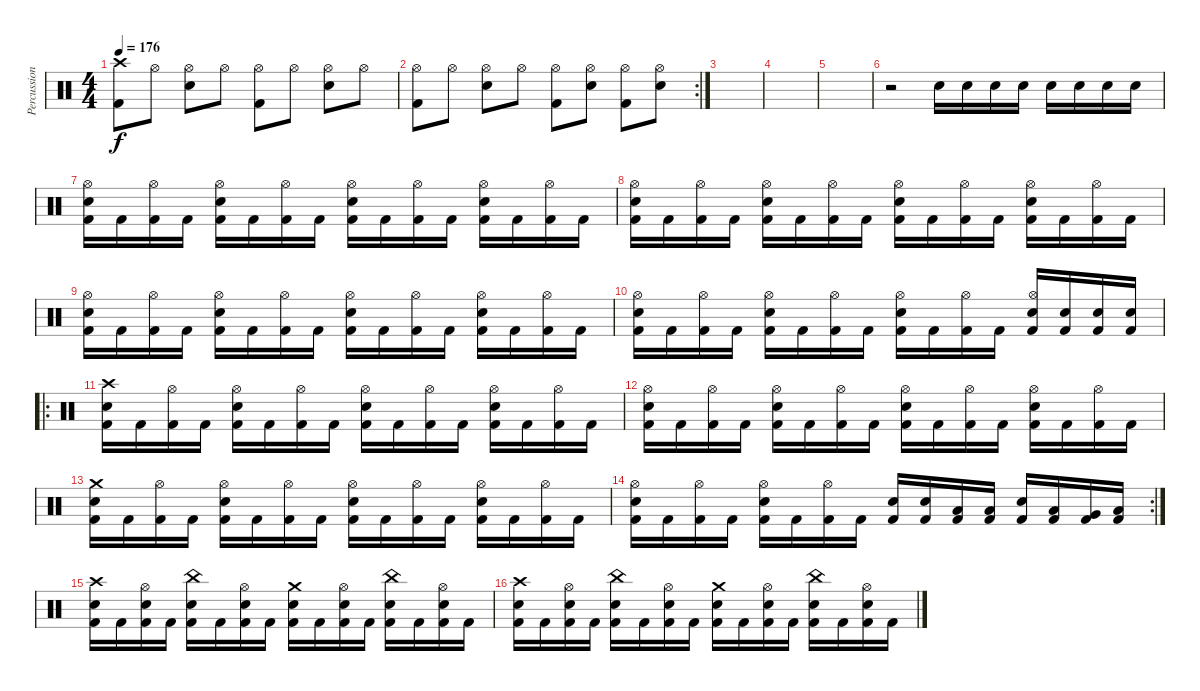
\track ("Percussion" "Percussion") {instrument percussion}
\staff {score}
\articulation defaults
\ts (4 4)
\tempo 176
\clef neutral
\ks c
("Crash high (hit)" "Kick (hit) 2").8{dy f} "Hi-Hat (open)".8 ("Hi-Hat (open)" "Electric Snare (hit)").8 "Hi-Hat (open)".8 ("Hi-Hat (open)" "Kick (hit) 2").8 "Hi-Hat (open)".8 ("Hi-Hat (open)" "Electric Snare (hit)").8 "Hi-Hat (open)".8 |
\rc 2
("Hi-Hat (open)" "Kick (hit) 2").8 "Hi-Hat (open)".8 ("Hi-Hat (open)" "Electric Snare (hit)").8 "Hi-Hat (open)".8 ("Hi-Hat (open)" "Kick (hit) 2").8 ("Hi-Hat (open)" "Electric Snare (hit)").8 ("Hi-Hat (open)" "Kick (hit) 2").8 ("Hi-Hat (open)" "Electric Snare (hit)").8 |
|
|
|
r.2 "Electric Snare (hit)".16 "Electric Snare (hit)".16 "Electric Snare (hit)".16 "Electric Snare (hit)".16 "Electric Snare (hit)".16 "Electric Snare (hit)".16 "Electric Snare (hit)".16 "Electric Snare (hit)".16 |
("Hi-Hat (open)" "Electric Snare (hit)" "Kick (hit) 2").16 "Kick (hit) 2".16 ("Hi-Hat (open)" "Kick (hit) 2").16 "Kick (hit) 2".16 ("Hi-Hat (open)" "Electric Snare (hit)" "Kick (hit) 2").16 "Kick (hit) 2".16 ("Hi-Hat (open)" "Kick (hit) 2").16 "Kick (hit) 2".16 ("Hi-Hat (open)" "Electric Snare (hit)" "Kick (hit) 2").16 "Kick (hit) 2".16 ("Hi-Hat (open)" "Kick (hit) 2").16 "Kick (hit) 2".16 ("Hi-Hat (open)" "Electric Snare (hit)" "Kick (hit) 2").16 "Kick (hit) 2".16 ("Hi-Hat (open)" "Kick (hit) 2").16 "Kick (hit) 2".16 |
("Hi-Hat (open)" "Electric Snare (hit)" "Kick (hit) 2").16 "Kick (hit) 2".16 ("Hi-Hat (open)" "Kick (hit) 2").16 "Kick (hit) 2".16 ("Hi-Hat (open)" "Electric Snare (hit)" "Kick (hit) 2").16 "Kick (hit) 2".16 ("Hi-Hat (open)" "Kick (hit) 2").16 "Kick (hit) 2".16 ("Hi-Hat (open)" "Electric Snare (hit)" "Kick (hit) 2").16 "Kick (hit) 2".16 ("Hi-Hat (open)" "Kick (hit) 2").16 "Kick (hit) 2".16 ("Hi-Hat (open)" "Electric Snare (hit)" "Kick (hit) 2").16 "Kick (hit) 2".16 ("Hi-Hat (open)" "Kick (hit) 2").16 "Kick (hit) 2".16 |
("Hi-Hat (open)" "Electric Snare (hit)" "Kick (hit) 2").16 "Kick (hit) 2".16 ("Hi-Hat (open)" "Kick (hit) 2").16 "Kick (hit) 2".16 ("Hi-Hat (open)" "Electric Snare (hit)" "Kick (hit) 2").16 "Kick (hit) 2".16 ("Hi-Hat (open)" "Kick (hit) 2").16 "Kick (hit) 2".16 ("Hi-Hat (open)" "Electric Snare (hit)" "Kick (hit) 2").16 "Kick (hit) 2".16 ("Hi-Hat (open)" "Kick (hit) 2").16 "Kick (hit) 2".16 ("Hi-Hat (open)" "Electric Snare (hit)" "Kick (hit) 2").16 "Kick (hit) 2".16 ("Hi-Hat (open)" "Kick (hit) 2").16 "Kick (hit) 2".16 |
("Hi-Hat (open)" "Electric Snare (hit)" "Kick (hit) 2").16 "Kick (hit) 2".16 ("Hi-Hat (open)" "Kick (hit) 2").16 "Kick (hit) 2".16 ("Hi-Hat (open)" "Electric Snare (hit)" "Kick (hit) 2").16 "Kick (hit) 2".16 ("Hi-Hat (open)" "Kick (hit) 2").16 "Kick (hit) 2".16 ("Hi-Hat (open)" "Electric Snare (hit)" "Kick (hit) 2").16 "Kick (hit) 2".16 ("Hi-Hat (open)" "Kick (hit) 2").16 "Kick (hit) 2".16 ("Hi-Hat (open)" "Electric Snare (hit)" "Kick (hit) 2").16 ("Electric Snare (hit)" "Kick (hit) 2").16 ("Electric Snare (hit)" "Kick (hit) 2").16 ("Electric Snare (hit)" "Kick (hit) 2").16 |
\ro
("Crash high (hit)" "Electric Snare (hit)" "Kick (hit) 2").16 "Kick (hit) 2".16 ("Hi-Hat (open)" "Kick (hit) 2").16 "Kick (hit) 2".16 ("Hi-Hat (open)" "Electric Snare (hit)" "Kick (hit) 2").16 "Kick (hit) 2".16 ("Hi-Hat (open)" "Kick (hit) 2").16 "Kick (hit) 2".16 ("Hi-Hat (open)" "Electric Snare (hit)" "Kick (hit) 2").16 "Kick (hit) 2".16 ("Hi-Hat (open)" "Kick (hit) 2").16 "Kick (hit) 2".16 ("Hi-Hat (open)" "Electric Snare (hit)" "Kick (hit) 2").16 "Kick (hit) 2".16 ("Hi-Hat (open)" "Kick (hit) 2").16 "Kick (hit) 2".16 |
("Hi-Hat (open)" "Electric Snare (hit)" "Kick (hit) 2").16 "Kick (hit) 2".16 ("Hi-Hat (open)" "Kick (hit) 2").16 "Kick (hit) 2".16 ("Hi-Hat (open)" "Electric Snare (hit)" "Kick (hit) 2").16 "Kick (hit) 2".16 ("Hi-Hat (open)" "Kick (hit) 2").16 "Kick (hit) 2".16 ("Hi-Hat (open)" "Electric Snare (hit)" "Kick (hit) 2").16 "Kick (hit) 2".16 ("Hi-Hat (open)" "Kick (hit) 2").16 "Kick (hit) 2".16 ("Hi-Hat (open)" "Electric Snare (hit)" "Kick (hit) 2").16 "Kick (hit) 2".16 ("Hi-Hat (open)" "Kick (hit) 2").16 "Kick (hit) 2".16 |
("Crash medium (hit)" "Electric Snare (hit)" "Kick (hit) 2").16 "Kick (hit) 2".16 ("Hi-Hat (open)" "Kick (hit) 2").16 "Kick (hit) 2".16 ("Hi-Hat (open)" "Electric Snare (hit)" "Kick (hit) 2").16 "Kick (hit) 2".16 ("Hi-Hat (open)" "Kick (hit) 2").16 "Kick (hit) 2".16 ("Hi-Hat (open)" "Electric Snare (hit)" "Kick (hit) 2").16 "Kick (hit) 2".16 ("Hi-Hat (open)" "Kick (hit) 2").16 "Kick (hit) 2".16 ("Hi-Hat (open)" "Electric Snare (hit)" "Kick (hit) 2").16 "Kick (hit) 2".16 ("Hi-Hat (open)" "Kick (hit) 2").16 "Kick (hit) 2".16 |
\rc 2
("Hi-Hat (open)" "Electric Snare (hit)" "Kick (hit) 2").16 "Kick (hit) 2".16 ("Hi-Hat (open)" "Kick (hit) 2").16 "Kick (hit) 2".16 ("Hi-Hat (open)" "Electric Snare (hit)" "Kick (hit) 2").16 "Kick (hit) 2".16 ("Hi-Hat (open)" "Kick (hit) 2").16 "Kick (hit) 2".16 ("Electric Snare (hit)" "Kick (hit) 2").16 ("Electric Snare (hit)" "Kick (hit) 2").16 ("Low Tom (hit)" "Kick (hit) 2").16 ("Low Tom (hit)" "Kick (hit) 2").16 ("Electric Snare (hit)" "Kick (hit) 2").16 ("Low Tom (hit)" "Kick (hit) 2").16 ("Very Low Tom (hit)" "Kick (hit) 2").16 ("Low Floor Tom (hit)" "Kick (hit) 2").16 |
("Crash high (hit)" "Electric Snare (hit)" "Kick (hit) 2").16 "Kick (hit) 2".16 ("Hi-Hat (open)" "Electric Snare (hit)" "Kick (hit) 2").16 "Kick (hit) 2".16 ("China (hit)" "Electric Snare (hit)" "Kick (hit) 2").16 "Kick (hit) 2".16 ("Hi-Hat (open)" "Electric Snare (hit)" "Kick (hit) 2").16 "Kick (hit) 2".16 ("Crash medium (hit)" "Electric Snare (hit)" "Kick (hit) 2").16 "Kick (hit) 2".16 ("Hi-Hat (open)" "Electric Snare (hit)" "Kick (hit) 2").16 "Kick (hit) 2".16 ("China (hit)" "Electric Snare (hit)" "Kick (hit) 2").16 "Kick (hit) 2".16 ("Hi-Hat (open)" "Electric Snare (hit)" "Kick (hit) 2").16 "Kick (hit) 2".16 |
("Crash high (hit)" "Electric Snare (hit)" "Kick (hit) 2").16 "Kick (hit) 2".16 ("Hi-Hat (open)" "Electric Snare (hit)" "Kick (hit) 2").16 "Kick (hit) 2".16 ("China (hit)" "Electric Snare (hit)" "Kick (hit) 2").16 "Kick (hit) 2".16 ("Hi-Hat (open)" "Electric Snare (hit)" "Kick (hit) 2").16 "Kick (hit) 2".16 ("Crash medium (hit)" "Electric Snare (hit)" "Kick (hit) 2").16 "Kick (hit) 2".16 ("Hi-Hat (open)" "Electric Snare (hit)" "Kick (hit) 2").16 "Kick (hit) 2".16 ("China (hit)" "Electric Snare (hit)" "Kick (hit) 2").16 "Kick (hit) 2".16 ("Hi-Hat (open)" "Electric Snare (hit)" "Kick (hit) 2").16 "Kick (hit) 2".16
